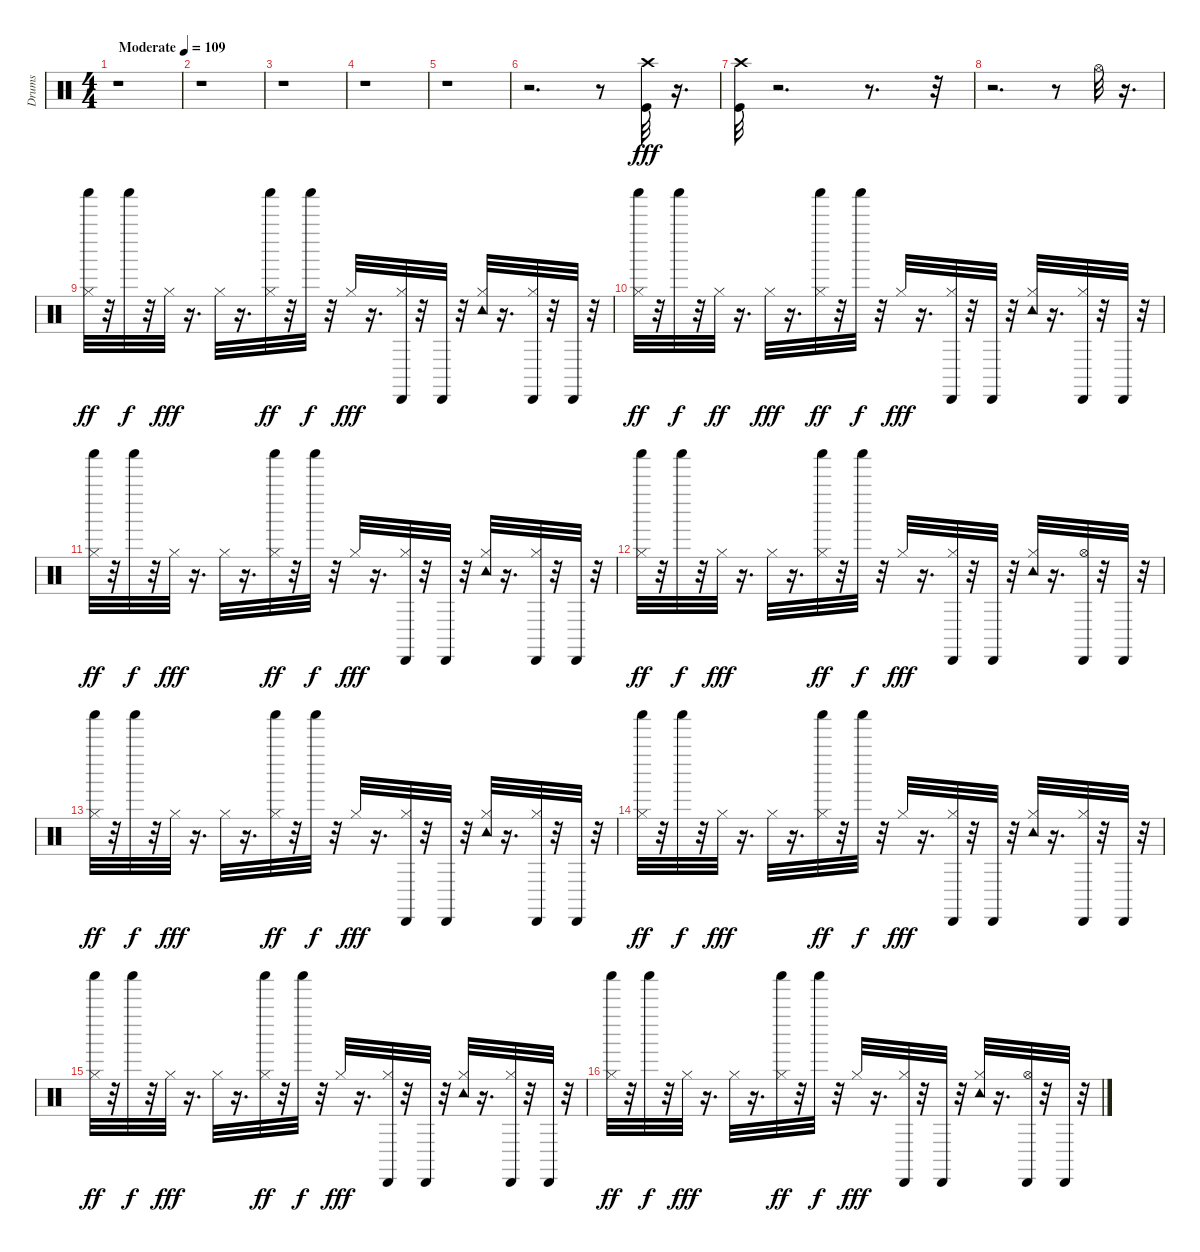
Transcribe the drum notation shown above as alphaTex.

\track ("Drums               " "Drums     ") {instrument percussion}
\staff {score}
\articulation defaults
\ts (4 4)
\tempo (109 "Moderate")
\clef neutral
\ks c
r.1{dy fff} |
r.1 |
r.1 |
r.1 |
r.1 |
r.2{d} r.8 ("Kick (hit)" "Crash high (hit)").32{volume 12} r.16{d} |
("Kick (hit)" "Crash high (hit)").32 r.2{d} r.8{d} r.32 |
r.2{d} r.8 "Hi-Hat (open)".32 r.16{d} |
("Hi-Hat (closed)" "Shaker (hit)").32{dy ff} r.32 "Shaker (hit)".32{dy f} r.32 "Hi-Hat (closed)".32{dy fff} r.16{d} "Hi-Hat (closed)".32 r.16{d} ("Hi-Hat (closed)" "Shaker (hit)").32{dy ff} r.32 "Shaker (hit)".32{dy f} r.32 "Hi-Hat (closed)".32{dy fff} r.16{d} ("Hi-Hat (closed)" "Cabasa (hit)").32 r.32 "Cabasa (hit)".32 r.32 ("Hi-Hat (closed)" "Tambourine (hit)").32 r.16{d} ("Hi-Hat (closed)" "Cabasa (hit)").32 r.32 "Cabasa (hit)".32 r.32 |
("Hi-Hat (closed)" "Shaker (hit)").32{dy ff} r.32 "Shaker (hit)".32{dy f} r.32 "Hi-Hat (closed)".32{dy ff} r.16{d} "Hi-Hat (closed)".32{dy fff} r.16{d} ("Hi-Hat (closed)" "Shaker (hit)").32{dy ff} r.32 "Shaker (hit)".32{dy f} r.32 "Hi-Hat (closed)".32{dy fff} r.16{d} ("Hi-Hat (closed)" "Cabasa (hit)").32 r.32 "Cabasa (hit)".32 r.32 ("Hi-Hat (closed)" "Tambourine (hit)").32 r.16{d} ("Hi-Hat (closed)" "Cabasa (hit)").32 r.32 "Cabasa (hit)".32 r.32 |
("Hi-Hat (closed)" "Shaker (hit)").32{dy ff} r.32 "Shaker (hit)".32{dy f} r.32 "Hi-Hat (closed)".32{dy fff} r.16{d} "Hi-Hat (closed)".32 r.16{d} ("Hi-Hat (closed)" "Shaker (hit)").32{dy ff} r.32 "Shaker (hit)".32{dy f} r.32 "Hi-Hat (closed)".32{dy fff} r.16{d} ("Hi-Hat (closed)" "Cabasa (hit)").32 r.32 "Cabasa (hit)".32 r.32 ("Hi-Hat (closed)" "Tambourine (hit)").32 r.16{d} ("Hi-Hat (closed)" "Cabasa (hit)").32 r.32 "Cabasa (hit)".32 r.32 |
("Hi-Hat (closed)" "Shaker (hit)").32{dy ff} r.32 "Shaker (hit)".32{dy f} r.32 "Hi-Hat (closed)".32{dy fff} r.16{d} "Hi-Hat (closed)".32 r.16{d} ("Hi-Hat (closed)" "Shaker (hit)").32{dy ff} r.32 "Shaker (hit)".32{dy f} r.32 "Hi-Hat (closed)".32{dy fff} r.16{d} ("Hi-Hat (closed)" "Cabasa (hit)").32 r.32 "Cabasa (hit)".32 r.32 ("Hi-Hat (closed)" "Tambourine (hit)").32 r.16{d} ("Hi-Hat (open)" "Cabasa (hit)").32 r.32 "Cabasa (hit)".32 r.32 |
("Hi-Hat (closed)" "Shaker (hit)").32{dy ff} r.32 "Shaker (hit)".32{dy f} r.32 "Hi-Hat (closed)".32{dy fff} r.16{d} "Hi-Hat (closed)".32 r.16{d} ("Hi-Hat (closed)" "Shaker (hit)").32{dy ff} r.32 "Shaker (hit)".32{dy f} r.32 "Hi-Hat (closed)".32{dy fff} r.16{d} ("Hi-Hat (closed)" "Cabasa (hit)").32 r.32 "Cabasa (hit)".32 r.32 ("Hi-Hat (closed)" "Tambourine (hit)").32 r.16{d} ("Hi-Hat (closed)" "Cabasa (hit)").32 r.32 "Cabasa (hit)".32 r.32 |
("Hi-Hat (closed)" "Shaker (hit)").32{dy ff} r.32 "Shaker (hit)".32{dy f} r.32 "Hi-Hat (closed)".32{dy fff} r.16{d} "Hi-Hat (closed)".32 r.16{d} ("Hi-Hat (closed)" "Shaker (hit)").32{dy ff} r.32 "Shaker (hit)".32{dy f} r.32 "Hi-Hat (closed)".32{dy fff} r.16{d} ("Hi-Hat (closed)" "Cabasa (hit)").32 r.32 "Cabasa (hit)".32 r.32 ("Hi-Hat (closed)" "Tambourine (hit)").32 r.16{d} ("Hi-Hat (closed)" "Cabasa (hit)").32 r.32 "Cabasa (hit)".32 r.32 |
("Hi-Hat (closed)" "Shaker (hit)").32{dy ff} r.32 "Shaker (hit)".32{dy f} r.32 "Hi-Hat (closed)".32{dy fff} r.16{d} "Hi-Hat (closed)".32 r.16{d} ("Hi-Hat (closed)" "Shaker (hit)").32{dy ff} r.32 "Shaker (hit)".32{dy f} r.32 "Hi-Hat (closed)".32{dy fff} r.16{d} ("Hi-Hat (closed)" "Cabasa (hit)").32 r.32 "Cabasa (hit)".32 r.32 ("Hi-Hat (closed)" "Tambourine (hit)").32 r.16{d} ("Hi-Hat (closed)" "Cabasa (hit)").32 r.32 "Cabasa (hit)".32 r.32 |
("Hi-Hat (closed)" "Shaker (hit)").32{dy ff} r.32 "Shaker (hit)".32{dy f} r.32 "Hi-Hat (closed)".32{dy fff} r.16{d} "Hi-Hat (closed)".32 r.16{d} ("Hi-Hat (closed)" "Shaker (hit)").32{dy ff} r.32 "Shaker (hit)".32{dy f} r.32 "Hi-Hat (closed)".32{dy fff} r.16{d} ("Hi-Hat (closed)" "Cabasa (hit)").32 r.32 "Cabasa (hit)".32 r.32 ("Hi-Hat (closed)" "Tambourine (hit)").32 r.16{d} ("Hi-Hat (open)" "Cabasa (hit)").32 r.32 "Cabasa (hit)".32 r.32
